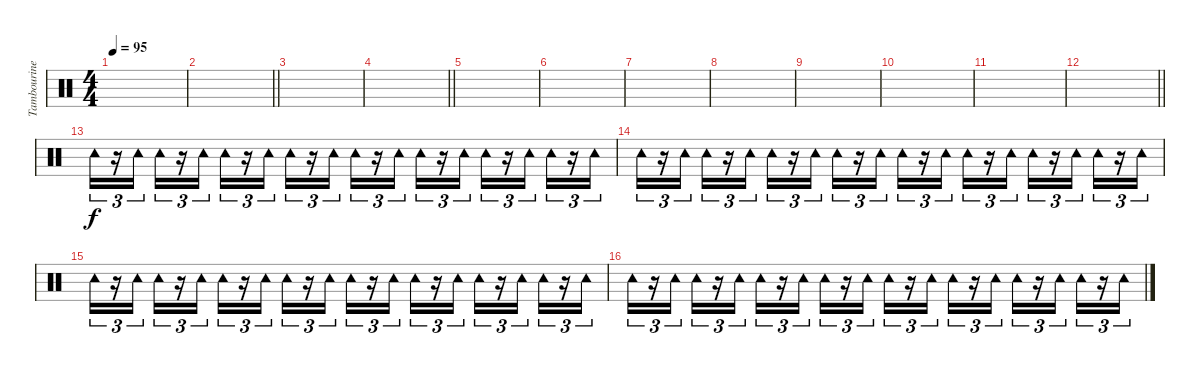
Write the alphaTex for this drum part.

\track ("Tambourine" "Tambourine") {instrument percussion}
\staff {score}
\articulation defaults
\ts (4 4)
\tempo 95
\clef neutral
\ks c
|
\barLineRight lightlight
|
|
\barLineRight lightlight
|
|
|
|
|
|
|
|
\barLineRight lightlight
|
"Tambourine (hit)".16{tu (3 2)} r.16{tu (3 2)} "Tambourine (hit)".16{tu (3 2)} "Tambourine (hit)".16{tu (3 2)} r.16{tu (3 2)} "Tambourine (hit)".16{tu (3 2)} "Tambourine (hit)".16{tu (3 2)} r.16{tu (3 2)} "Tambourine (hit)".16{tu (3 2)} "Tambourine (hit)".16{tu (3 2)} r.16{tu (3 2)} "Tambourine (hit)".16{tu (3 2)} "Tambourine (hit)".16{tu (3 2)} r.16{tu (3 2)} "Tambourine (hit)".16{tu (3 2)} "Tambourine (hit)".16{tu (3 2)} r.16{tu (3 2)} "Tambourine (hit)".16{tu (3 2)} "Tambourine (hit)".16{tu (3 2)} r.16{tu (3 2)} "Tambourine (hit)".16{tu (3 2)} "Tambourine (hit)".16{tu (3 2)} r.16{tu (3 2)} "Tambourine (hit)".16{tu (3 2)} |
"Tambourine (hit)".16{tu (3 2)} r.16{tu (3 2)} "Tambourine (hit)".16{tu (3 2)} "Tambourine (hit)".16{tu (3 2)} r.16{tu (3 2)} "Tambourine (hit)".16{tu (3 2)} "Tambourine (hit)".16{tu (3 2)} r.16{tu (3 2)} "Tambourine (hit)".16{tu (3 2)} "Tambourine (hit)".16{tu (3 2)} r.16{tu (3 2)} "Tambourine (hit)".16{tu (3 2)} "Tambourine (hit)".16{tu (3 2)} r.16{tu (3 2)} "Tambourine (hit)".16{tu (3 2)} "Tambourine (hit)".16{tu (3 2)} r.16{tu (3 2)} "Tambourine (hit)".16{tu (3 2)} "Tambourine (hit)".16{tu (3 2)} r.16{tu (3 2)} "Tambourine (hit)".16{tu (3 2)} "Tambourine (hit)".16{tu (3 2)} r.16{tu (3 2)} "Tambourine (hit)".16{tu (3 2)} |
"Tambourine (hit)".16{tu (3 2)} r.16{tu (3 2)} "Tambourine (hit)".16{tu (3 2)} "Tambourine (hit)".16{tu (3 2)} r.16{tu (3 2)} "Tambourine (hit)".16{tu (3 2)} "Tambourine (hit)".16{tu (3 2)} r.16{tu (3 2)} "Tambourine (hit)".16{tu (3 2)} "Tambourine (hit)".16{tu (3 2)} r.16{tu (3 2)} "Tambourine (hit)".16{tu (3 2)} "Tambourine (hit)".16{tu (3 2)} r.16{tu (3 2)} "Tambourine (hit)".16{tu (3 2)} "Tambourine (hit)".16{tu (3 2)} r.16{tu (3 2)} "Tambourine (hit)".16{tu (3 2)} "Tambourine (hit)".16{tu (3 2)} r.16{tu (3 2)} "Tambourine (hit)".16{tu (3 2)} "Tambourine (hit)".16{tu (3 2)} r.16{tu (3 2)} "Tambourine (hit)".16{tu (3 2)} |
"Tambourine (hit)".16{tu (3 2)} r.16{tu (3 2)} "Tambourine (hit)".16{tu (3 2)} "Tambourine (hit)".16{tu (3 2)} r.16{tu (3 2)} "Tambourine (hit)".16{tu (3 2)} "Tambourine (hit)".16{tu (3 2)} r.16{tu (3 2)} "Tambourine (hit)".16{tu (3 2)} "Tambourine (hit)".16{tu (3 2)} r.16{tu (3 2)} "Tambourine (hit)".16{tu (3 2)} "Tambourine (hit)".16{tu (3 2)} r.16{tu (3 2)} "Tambourine (hit)".16{tu (3 2)} "Tambourine (hit)".16{tu (3 2)} r.16{tu (3 2)} "Tambourine (hit)".16{tu (3 2)} "Tambourine (hit)".16{tu (3 2)} r.16{tu (3 2)} "Tambourine (hit)".16{tu (3 2)} "Tambourine (hit)".16{tu (3 2)} r.16{tu (3 2)} "Tambourine (hit)".16{tu (3 2)}
